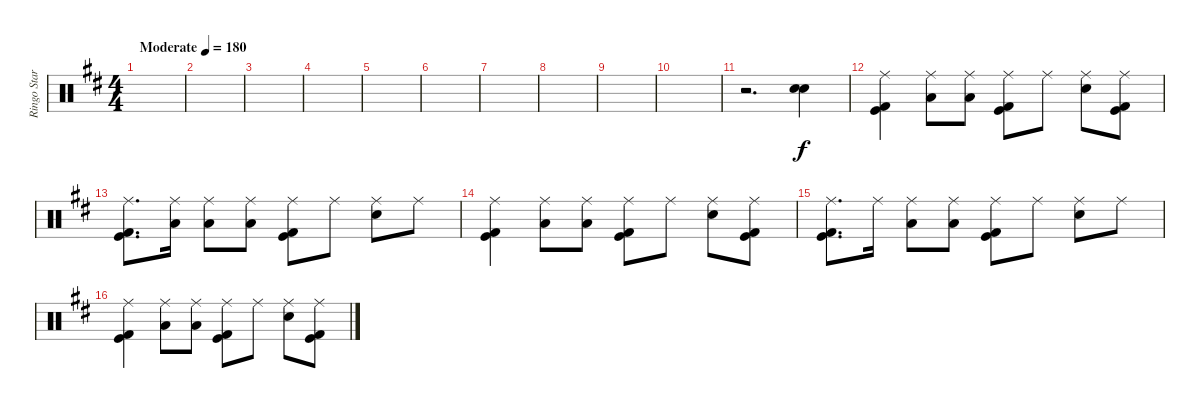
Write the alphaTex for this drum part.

\track ("Ringo Starr" "Ringo Star") {instrument percussion}
\staff {score}
\articulation defaults
\ts (4 4)
\tempo (180 "Moderate")
\clef neutral
\ks d
|
|
|
|
|
|
|
|
|
|
r.2{d} ("Electric Snare (hit)" "Snare (hit) 2").4 |
("Ride (middle)" "Kick (hit) 2" "Kick (hit)").4 ("Ride (middle)" "Low Tom (hit)").8 ("Ride (middle)" "Low Tom (hit)").8 ("Ride (middle)" "Kick (hit) 2" "Kick (hit)").8 "Ride (middle)".8 ("Ride (middle)" "Electric Snare (hit)").8 ("Ride (middle)" "Kick (hit) 2" "Kick (hit)").8 |
("Ride (middle)" "Kick (hit) 2" "Kick (hit)").8{d} ("Ride (middle)" "Low Tom (hit)").16 ("Ride (middle)" "Low Tom (hit)").8 ("Ride (middle)" "Low Tom (hit)").8 ("Ride (middle)" "Kick (hit) 2" "Kick (hit)").8 "Ride (middle)".8 ("Ride (middle)" "Electric Snare (hit)").8 "Ride (middle)".8 |
("Ride (middle)" "Kick (hit) 2" "Kick (hit)").4 ("Ride (middle)" "Low Tom (hit)").8 ("Ride (middle)" "Low Tom (hit)").8 ("Ride (middle)" "Kick (hit) 2" "Kick (hit)").8 "Ride (middle)".8 ("Ride (middle)" "Electric Snare (hit)").8 ("Ride (middle)" "Kick (hit) 2" "Kick (hit)").8 |
("Ride (middle)" "Kick (hit) 2" "Kick (hit)").8{d} "Ride (middle)".16 ("Ride (middle)" "Low Tom (hit)").8 ("Ride (middle)" "Low Tom (hit)").8 ("Ride (middle)" "Kick (hit) 2" "Kick (hit)").8 "Ride (middle)".8 ("Ride (middle)" "Electric Snare (hit)").8 "Ride (middle)".8 |
("Ride (middle)" "Kick (hit) 2" "Kick (hit)").4 ("Ride (middle)" "Low Tom (hit)").8 ("Ride (middle)" "Low Tom (hit)").8 ("Ride (middle)" "Kick (hit) 2" "Kick (hit)").8 "Ride (middle)".8 ("Ride (middle)" "Electric Snare (hit)").8 ("Ride (middle)" "Kick (hit) 2" "Kick (hit)").8
